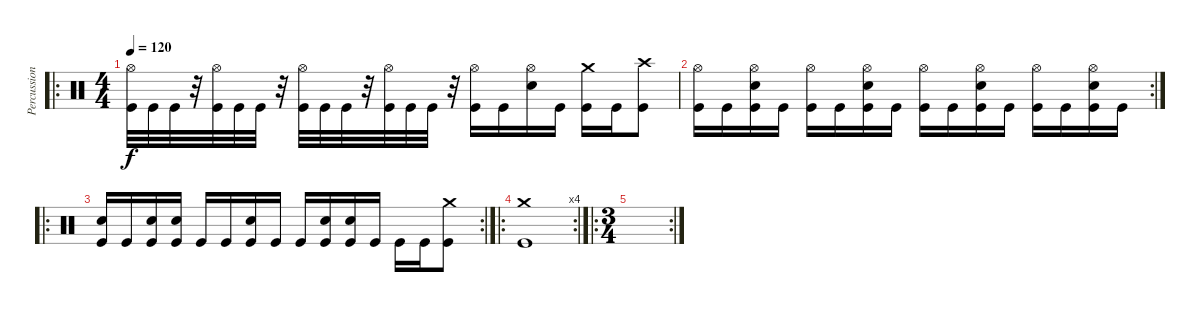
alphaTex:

\track ("Percussion" "Percussion") {instrument percussion}
\staff {score}
\articulation defaults
\ro
\ts (4 4)
\tempo 120
\clef neutral
\ks c
("Hi-Hat (open)" "Kick (hit)").32{dy f} "Kick (hit)".32 "Kick (hit)".32 r.32 ("Hi-Hat (open)" "Kick (hit)").32 "Kick (hit)".32 "Kick (hit)".32 r.32 ("Hi-Hat (open)" "Kick (hit)").32 "Kick (hit)".32 "Kick (hit)".32 r.32 ("Hi-Hat (open)" "Kick (hit)").32 "Kick (hit)".32 "Kick (hit)".32 r.32 ("Hi-Hat (open)" "Kick (hit)").16 "Kick (hit)".16 ("Hi-Hat (open)" "Snare (hit) 2").16 "Kick (hit)".16 ("Crash medium (hit)" "Kick (hit)").16 "Kick (hit)".16 ("Crash high (hit)" "Kick (hit)").8 |
\rc 2
("Hi-Hat (open)" "Kick (hit)").16 "Kick (hit)".16 ("Hi-Hat (open)" "Snare (hit) 2" "Kick (hit)").16 "Kick (hit)".16 ("Hi-Hat (open)" "Kick (hit)").16 "Kick (hit)".16 ("Hi-Hat (open)" "Snare (hit) 2" "Kick (hit)").16 "Kick (hit)".16 ("Hi-Hat (open)" "Kick (hit)").16 "Kick (hit)".16 ("Hi-Hat (open)" "Snare (hit) 2" "Kick (hit)").16 "Kick (hit)".16 ("Hi-Hat (open)" "Kick (hit)").16 "Kick (hit)".16 ("Hi-Hat (open)" "Snare (hit) 2" "Kick (hit)").16 "Kick (hit)".16 |
\ro
\rc 2
("Snare (hit) 2" "Kick (hit)").16 "Kick (hit)".16 ("Snare (hit) 2" "Kick (hit)").16 ("Snare (hit) 2" "Kick (hit)").16 "Kick (hit)".16 "Kick (hit)".16 ("Snare (hit) 2" "Kick (hit)").16 "Kick (hit)".16 "Kick (hit)".16 ("Snare (hit) 2" "Kick (hit)").16 ("Snare (hit) 2" "Kick (hit)").16 "Kick (hit)".16 "Kick (hit)".16 "Kick (hit)".16 ("Crash medium (hit)" "Kick (hit)").8 |
\ro
\rc 4
("Crash medium (hit)" "Kick (hit)").1 |
\ro
\rc 2
\ts (3 4)
